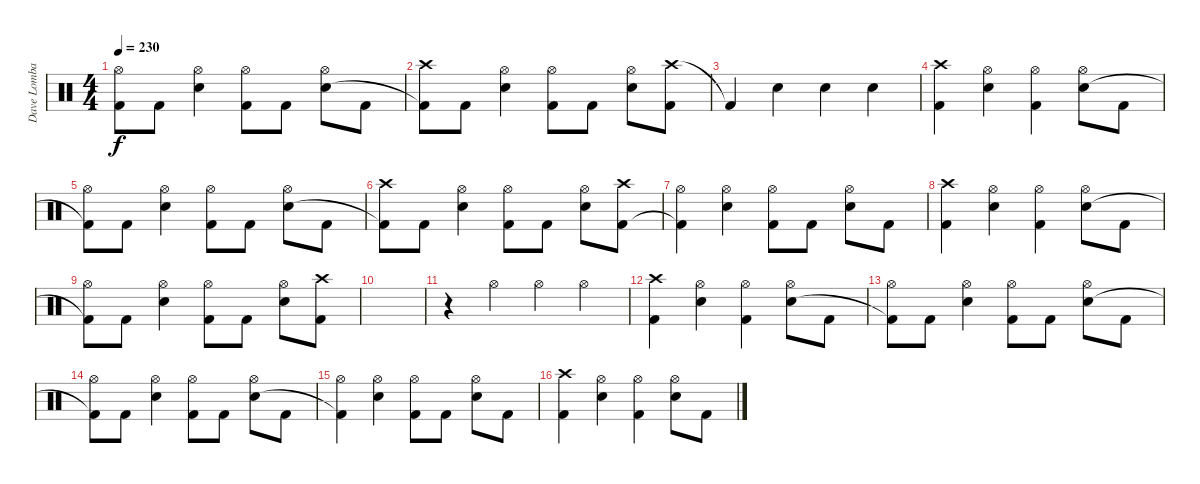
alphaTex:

\track ("Dave Lombardo" "Dave Lomba") {instrument percussion}
\staff {score}
\articulation defaults
\ts (4 4)
\tempo 230
\clef neutral
\ks c
("Hi-Hat (open)" "Kick (hit) 2"{t}).8{dy f} "Kick (hit) 2".8 ("Hi-Hat (open)" "Snare (hit) 2").4 ("Hi-Hat (open)" "Kick (hit) 2").8 "Kick (hit) 2".8 ("Hi-Hat (open)" "Snare (hit) 2").8 "Kick (hit) 2".8 |
("Crash high (hit)" "Kick (hit) 2"{t}).8 "Kick (hit) 2".8 ("Hi-Hat (open)" "Snare (hit) 2").4 ("Hi-Hat (open)" "Kick (hit) 2").8 "Kick (hit) 2".8 ("Hi-Hat (open)" "Snare (hit) 2").8 ("Crash high (hit)" "Kick (hit) 2").8 |
"Kick (hit) 2"{t}.4 "Snare (hit) 2".4 "Snare (hit) 2".4 "Snare (hit) 2".4 |
("Crash high (hit)" "Kick (hit) 2").4 ("Hi-Hat (open)" "Snare (hit) 2").4 ("Hi-Hat (open)" "Kick (hit) 2").4 ("Hi-Hat (open)" "Snare (hit) 2").8 "Kick (hit) 2".8 |
("Hi-Hat (open)" "Kick (hit) 2"{t}).8 "Kick (hit) 2".8 ("Hi-Hat (open)" "Snare (hit) 2").4 ("Hi-Hat (open)" "Kick (hit) 2").8 "Kick (hit) 2".8 ("Hi-Hat (open)" "Snare (hit) 2").8 "Kick (hit) 2".8 |
("Crash high (hit)" "Kick (hit) 2"{t}).8 "Kick (hit) 2".8 ("Hi-Hat (open)" "Snare (hit) 2").4 ("Hi-Hat (open)" "Kick (hit) 2").8 "Kick (hit) 2".8 ("Hi-Hat (open)" "Snare (hit) 2").8 ("Crash high (hit)" "Kick (hit) 2").8 |
("Hi-Hat (open)" "Kick (hit) 2"{t}).4 ("Hi-Hat (open)" "Snare (hit) 2").4 ("Hi-Hat (open)" "Kick (hit) 2").8 "Kick (hit) 2".8 ("Hi-Hat (open)" "Snare (hit) 2").8 "Kick (hit) 2".8 |
("Crash high (hit)" "Kick (hit) 2").4 ("Hi-Hat (open)" "Snare (hit) 2").4 ("Hi-Hat (open)" "Kick (hit) 2").4 ("Hi-Hat (open)" "Snare (hit) 2").8 "Kick (hit) 2".8 |
("Hi-Hat (open)" "Kick (hit) 2"{t}).8 "Kick (hit) 2".8 ("Hi-Hat (open)" "Snare (hit) 2").4 ("Hi-Hat (open)" "Kick (hit) 2").8 "Kick (hit) 2".8 ("Hi-Hat (open)" "Snare (hit) 2").8 ("Crash high (hit)" "Kick (hit) 2").8 |
|
r.4 "Hi-Hat (open)".4 "Hi-Hat (open)".4 "Hi-Hat (open)".4 |
("Crash high (hit)" "Kick (hit) 2").4 ("Hi-Hat (open)" "Snare (hit) 2").4 ("Hi-Hat (open)" "Kick (hit) 2").4 ("Hi-Hat (open)" "Snare (hit) 2").8 "Kick (hit) 2".8 |
("Hi-Hat (open)" "Kick (hit) 2"{t}).8 "Kick (hit) 2".8 ("Hi-Hat (open)" "Snare (hit) 2").4 ("Hi-Hat (open)" "Kick (hit) 2").8 "Kick (hit) 2".8 ("Hi-Hat (open)" "Snare (hit) 2").8 "Kick (hit) 2".8 |
("Hi-Hat (open)" "Kick (hit) 2"{t}).8 "Kick (hit) 2".8 ("Hi-Hat (open)" "Snare (hit) 2").4 ("Hi-Hat (open)" "Kick (hit) 2").8 "Kick (hit) 2".8 ("Hi-Hat (open)" "Snare (hit) 2").8 "Kick (hit) 2".8 |
("Hi-Hat (open)" "Kick (hit) 2"{t}).4 ("Hi-Hat (open)" "Snare (hit) 2").4 ("Hi-Hat (open)" "Kick (hit) 2").8 "Kick (hit) 2".8 ("Hi-Hat (open)" "Snare (hit) 2").8 "Kick (hit) 2".8 |
("Crash high (hit)" "Kick (hit) 2").4 ("Hi-Hat (open)" "Snare (hit) 2").4 ("Hi-Hat (open)" "Kick (hit) 2").4 ("Hi-Hat (open)" "Snare (hit) 2").8 "Kick (hit) 2".8
